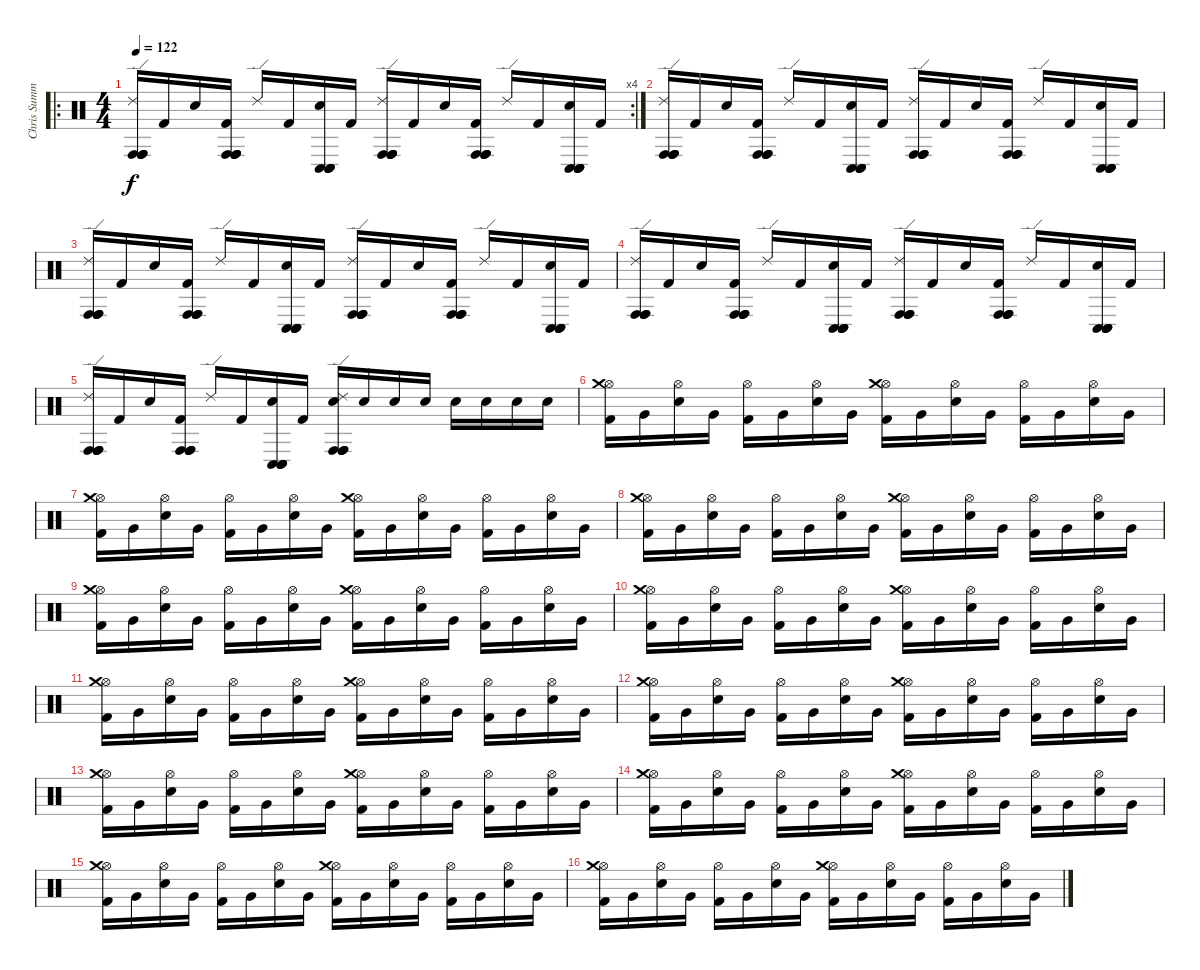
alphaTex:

\track ("Chris Summers" "Chris Summ") {instrument percussion}
\staff {score}
\articulation defaults
\ro
\rc 4
\ts (4 4)
\tempo 122
\clef neutral
\ks c
("Conga high (hit)" "Ride (edge) 2" "Conga high (hit)" "Conga high (hit)" "Conga high (hit)").16{dy f} "Kick (hit) 2".16 "Electric Snare (hit)".16 ("Kick (hit) 2" "Conga high (hit)" "Conga high (hit)" "Conga high (hit)" "Conga high (hit)").16 "Ride (edge) 2".16 "Kick (hit) 2".16 ("Electric Snare (hit)" "Conga low (hit)" "Conga low (hit)" "Conga low (hit)" "Conga low (hit)").16 "Kick (hit) 2".16 ("Conga high (hit)" "Ride (edge) 2" "Conga high (hit)" "Conga high (hit)" "Conga high (hit)").16 "Kick (hit) 2".16 "Electric Snare (hit)".16 ("Kick (hit) 2" "Conga high (hit)" "Conga high (hit)" "Conga high (hit)" "Conga high (hit)").16 "Ride (edge) 2".16 "Kick (hit) 2".16 ("Electric Snare (hit)" "Conga low (hit)" "Conga low (hit)" "Conga low (hit)" "Conga low (hit)").16 "Kick (hit) 2".16 |
("Conga high (hit)" "Ride (edge) 2" "Conga high (hit)" "Conga high (hit)" "Conga high (hit)").16 "Kick (hit) 2".16 "Electric Snare (hit)".16 ("Kick (hit) 2" "Conga high (hit)" "Conga high (hit)" "Conga high (hit)" "Conga high (hit)").16 "Ride (edge) 2".16 "Kick (hit) 2".16 ("Electric Snare (hit)" "Conga low (hit)" "Conga low (hit)" "Conga low (hit)" "Conga low (hit)").16 "Kick (hit) 2".16 ("Conga high (hit)" "Ride (edge) 2" "Conga high (hit)" "Conga high (hit)" "Conga high (hit)").16 "Kick (hit) 2".16 "Electric Snare (hit)".16 ("Kick (hit) 2" "Conga high (hit)" "Conga high (hit)" "Conga high (hit)" "Conga high (hit)").16 "Ride (edge) 2".16 "Kick (hit) 2".16 ("Electric Snare (hit)" "Conga low (hit)" "Conga low (hit)" "Conga low (hit)" "Conga low (hit)").16 "Kick (hit) 2".16 |
("Conga high (hit)" "Ride (edge) 2" "Conga high (hit)" "Conga high (hit)" "Conga high (hit)").16 "Kick (hit) 2".16 "Electric Snare (hit)".16 ("Kick (hit) 2" "Conga high (hit)" "Conga high (hit)" "Conga high (hit)" "Conga high (hit)").16 "Ride (edge) 2".16 "Kick (hit) 2".16 ("Electric Snare (hit)" "Conga low (hit)" "Conga low (hit)" "Conga low (hit)" "Conga low (hit)").16 "Kick (hit) 2".16 ("Conga high (hit)" "Ride (edge) 2" "Conga high (hit)" "Conga high (hit)" "Conga high (hit)").16 "Kick (hit) 2".16 "Electric Snare (hit)".16 ("Kick (hit) 2" "Conga high (hit)" "Conga high (hit)" "Conga high (hit)" "Conga high (hit)").16 "Ride (edge) 2".16 "Kick (hit) 2".16 ("Electric Snare (hit)" "Conga low (hit)" "Conga low (hit)" "Conga low (hit)" "Conga low (hit)").16 "Kick (hit) 2".16 |
("Conga high (hit)" "Ride (edge) 2" "Conga high (hit)" "Conga high (hit)" "Conga high (hit)").16 "Kick (hit) 2".16 "Electric Snare (hit)".16 ("Kick (hit) 2" "Conga high (hit)" "Conga high (hit)" "Conga high (hit)" "Conga high (hit)").16 "Ride (edge) 2".16 "Kick (hit) 2".16 ("Electric Snare (hit)" "Conga low (hit)" "Conga low (hit)" "Conga low (hit)" "Conga low (hit)").16 "Kick (hit) 2".16 ("Conga high (hit)" "Ride (edge) 2" "Conga high (hit)" "Conga high (hit)" "Conga high (hit)").16 "Kick (hit) 2".16 "Electric Snare (hit)".16 ("Kick (hit) 2" "Conga high (hit)" "Conga high (hit)" "Conga high (hit)" "Conga high (hit)").16 "Ride (edge) 2".16 "Kick (hit) 2".16 ("Electric Snare (hit)" "Conga low (hit)" "Conga low (hit)" "Conga low (hit)" "Conga low (hit)").16 "Kick (hit) 2".16 |
("Conga high (hit)" "Ride (edge) 2" "Conga high (hit)" "Conga high (hit)" "Conga high (hit)").16 "Kick (hit) 2".16 "Electric Snare (hit)".16 ("Kick (hit) 2" "Conga high (hit)" "Conga high (hit)" "Conga high (hit)" "Conga high (hit)").16 "Ride (edge) 2".16 "Kick (hit) 2".16 ("Electric Snare (hit)" "Conga low (hit)" "Conga low (hit)" "Conga low (hit)" "Conga low (hit)").16 "Kick (hit) 2".16 ("Electric Snare (hit)" "Conga high (hit)" "Ride (edge) 2" "Conga high (hit)" "Conga high (hit)" "Conga high (hit)").16 "Electric Snare (hit)".16 "Electric Snare (hit)".16 "Electric Snare (hit)".16 "Electric Snare (hit)".16 "Electric Snare (hit)".16 "Electric Snare (hit)".16 "Electric Snare (hit)".16 |
("Kick (hit) 2" "Hi-Hat (open)" "Crash medium (hit)").16 "Very Low Tom (hit)".16 ("Electric Snare (hit)" "Hi-Hat (open)").16 "Very Low Tom (hit)".16 ("Kick (hit) 2" "Hi-Hat (open)").16 "Very Low Tom (hit)".16 ("Electric Snare (hit)" "Hi-Hat (open)").16 "Very Low Tom (hit)".16 ("Kick (hit) 2" "Hi-Hat (open)" "Crash medium (hit)").16 "Very Low Tom (hit)".16 ("Electric Snare (hit)" "Hi-Hat (open)").16 "Very Low Tom (hit)".16 ("Kick (hit) 2" "Hi-Hat (open)").16 "Very Low Tom (hit)".16 ("Electric Snare (hit)" "Hi-Hat (open)").16 "Very Low Tom (hit)".16 |
("Kick (hit) 2" "Hi-Hat (open)" "Crash medium (hit)").16 "Very Low Tom (hit)".16 ("Electric Snare (hit)" "Hi-Hat (open)").16 "Very Low Tom (hit)".16 ("Kick (hit) 2" "Hi-Hat (open)").16 "Very Low Tom (hit)".16 ("Electric Snare (hit)" "Hi-Hat (open)").16 "Very Low Tom (hit)".16 ("Kick (hit) 2" "Hi-Hat (open)" "Crash medium (hit)").16 "Very Low Tom (hit)".16 ("Electric Snare (hit)" "Hi-Hat (open)").16 "Very Low Tom (hit)".16 ("Kick (hit) 2" "Hi-Hat (open)").16 "Very Low Tom (hit)".16 ("Electric Snare (hit)" "Hi-Hat (open)").16 "Very Low Tom (hit)".16 |
("Kick (hit) 2" "Hi-Hat (open)" "Crash medium (hit)").16 "Very Low Tom (hit)".16 ("Electric Snare (hit)" "Hi-Hat (open)").16 "Very Low Tom (hit)".16 ("Kick (hit) 2" "Hi-Hat (open)").16 "Very Low Tom (hit)".16 ("Electric Snare (hit)" "Hi-Hat (open)").16 "Very Low Tom (hit)".16 ("Kick (hit) 2" "Hi-Hat (open)" "Crash medium (hit)").16 "Very Low Tom (hit)".16 ("Electric Snare (hit)" "Hi-Hat (open)").16 "Very Low Tom (hit)".16 ("Kick (hit) 2" "Hi-Hat (open)").16 "Very Low Tom (hit)".16 ("Electric Snare (hit)" "Hi-Hat (open)").16 "Very Low Tom (hit)".16 |
("Kick (hit) 2" "Hi-Hat (open)" "Crash medium (hit)").16 "Very Low Tom (hit)".16 ("Electric Snare (hit)" "Hi-Hat (open)").16 "Very Low Tom (hit)".16 ("Kick (hit) 2" "Hi-Hat (open)").16 "Very Low Tom (hit)".16 ("Electric Snare (hit)" "Hi-Hat (open)").16 "Very Low Tom (hit)".16 ("Kick (hit) 2" "Hi-Hat (open)" "Crash medium (hit)").16 "Very Low Tom (hit)".16 ("Electric Snare (hit)" "Hi-Hat (open)").16 "Very Low Tom (hit)".16 ("Kick (hit) 2" "Hi-Hat (open)").16 "Very Low Tom (hit)".16 ("Electric Snare (hit)" "Hi-Hat (open)").16 "Very Low Tom (hit)".16 |
("Kick (hit) 2" "Hi-Hat (open)" "Crash medium (hit)").16 "Very Low Tom (hit)".16 ("Electric Snare (hit)" "Hi-Hat (open)").16 "Very Low Tom (hit)".16 ("Kick (hit) 2" "Hi-Hat (open)").16 "Very Low Tom (hit)".16 ("Electric Snare (hit)" "Hi-Hat (open)").16 "Very Low Tom (hit)".16 ("Kick (hit) 2" "Hi-Hat (open)" "Crash medium (hit)").16 "Very Low Tom (hit)".16 ("Electric Snare (hit)" "Hi-Hat (open)").16 "Very Low Tom (hit)".16 ("Kick (hit) 2" "Hi-Hat (open)").16 "Very Low Tom (hit)".16 ("Electric Snare (hit)" "Hi-Hat (open)").16 "Very Low Tom (hit)".16 |
("Kick (hit) 2" "Hi-Hat (open)" "Crash medium (hit)").16 "Very Low Tom (hit)".16 ("Electric Snare (hit)" "Hi-Hat (open)").16 "Very Low Tom (hit)".16 ("Kick (hit) 2" "Hi-Hat (open)").16 "Very Low Tom (hit)".16 ("Electric Snare (hit)" "Hi-Hat (open)").16 "Very Low Tom (hit)".16 ("Kick (hit) 2" "Hi-Hat (open)" "Crash medium (hit)").16 "Very Low Tom (hit)".16 ("Electric Snare (hit)" "Hi-Hat (open)").16 "Very Low Tom (hit)".16 ("Kick (hit) 2" "Hi-Hat (open)").16 "Very Low Tom (hit)".16 ("Electric Snare (hit)" "Hi-Hat (open)").16 "Very Low Tom (hit)".16 |
("Kick (hit) 2" "Hi-Hat (open)" "Crash medium (hit)").16 "Very Low Tom (hit)".16 ("Electric Snare (hit)" "Hi-Hat (open)").16 "Very Low Tom (hit)".16 ("Kick (hit) 2" "Hi-Hat (open)").16 "Very Low Tom (hit)".16 ("Electric Snare (hit)" "Hi-Hat (open)").16 "Very Low Tom (hit)".16 ("Kick (hit) 2" "Hi-Hat (open)" "Crash medium (hit)").16 "Very Low Tom (hit)".16 ("Electric Snare (hit)" "Hi-Hat (open)").16 "Very Low Tom (hit)".16 ("Kick (hit) 2" "Hi-Hat (open)").16 "Very Low Tom (hit)".16 ("Electric Snare (hit)" "Hi-Hat (open)").16 "Very Low Tom (hit)".16 |
("Kick (hit) 2" "Hi-Hat (open)" "Crash medium (hit)").16 "Very Low Tom (hit)".16 ("Electric Snare (hit)" "Hi-Hat (open)").16 "Very Low Tom (hit)".16 ("Kick (hit) 2" "Hi-Hat (open)").16 "Very Low Tom (hit)".16 ("Electric Snare (hit)" "Hi-Hat (open)").16 "Very Low Tom (hit)".16 ("Kick (hit) 2" "Hi-Hat (open)" "Crash medium (hit)").16 "Very Low Tom (hit)".16 ("Electric Snare (hit)" "Hi-Hat (open)").16 "Very Low Tom (hit)".16 ("Kick (hit) 2" "Hi-Hat (open)").16 "Very Low Tom (hit)".16 ("Electric Snare (hit)" "Hi-Hat (open)").16 "Very Low Tom (hit)".16 |
("Kick (hit) 2" "Hi-Hat (open)" "Crash medium (hit)").16 "Very Low Tom (hit)".16 ("Electric Snare (hit)" "Hi-Hat (open)").16 "Very Low Tom (hit)".16 ("Kick (hit) 2" "Hi-Hat (open)").16 "Very Low Tom (hit)".16 ("Electric Snare (hit)" "Hi-Hat (open)").16 "Very Low Tom (hit)".16 ("Kick (hit) 2" "Hi-Hat (open)" "Crash medium (hit)").16 "Very Low Tom (hit)".16 ("Electric Snare (hit)" "Hi-Hat (open)").16 "Very Low Tom (hit)".16 ("Kick (hit) 2" "Hi-Hat (open)").16 "Very Low Tom (hit)".16 ("Electric Snare (hit)" "Hi-Hat (open)").16 "Very Low Tom (hit)".16 |
("Kick (hit) 2" "Hi-Hat (open)" "Crash medium (hit)").16 "Very Low Tom (hit)".16 ("Electric Snare (hit)" "Hi-Hat (open)").16 "Very Low Tom (hit)".16 ("Kick (hit) 2" "Hi-Hat (open)").16 "Very Low Tom (hit)".16 ("Electric Snare (hit)" "Hi-Hat (open)").16 "Very Low Tom (hit)".16 ("Kick (hit) 2" "Hi-Hat (open)" "Crash medium (hit)").16 "Very Low Tom (hit)".16 ("Electric Snare (hit)" "Hi-Hat (open)").16 "Very Low Tom (hit)".16 ("Kick (hit) 2" "Hi-Hat (open)").16 "Very Low Tom (hit)".16 ("Electric Snare (hit)" "Hi-Hat (open)").16 "Very Low Tom (hit)".16 |
("Kick (hit) 2" "Hi-Hat (open)" "Crash medium (hit)").16 "Very Low Tom (hit)".16 ("Electric Snare (hit)" "Hi-Hat (open)").16 "Very Low Tom (hit)".16 ("Kick (hit) 2" "Hi-Hat (open)").16 "Very Low Tom (hit)".16 ("Electric Snare (hit)" "Hi-Hat (open)").16 "Very Low Tom (hit)".16 ("Kick (hit) 2" "Hi-Hat (open)" "Crash medium (hit)").16 "Very Low Tom (hit)".16 ("Electric Snare (hit)" "Hi-Hat (open)").16 "Very Low Tom (hit)".16 ("Kick (hit) 2" "Hi-Hat (open)").16 "Very Low Tom (hit)".16 ("Electric Snare (hit)" "Hi-Hat (open)").16 "Very Low Tom (hit)".16
